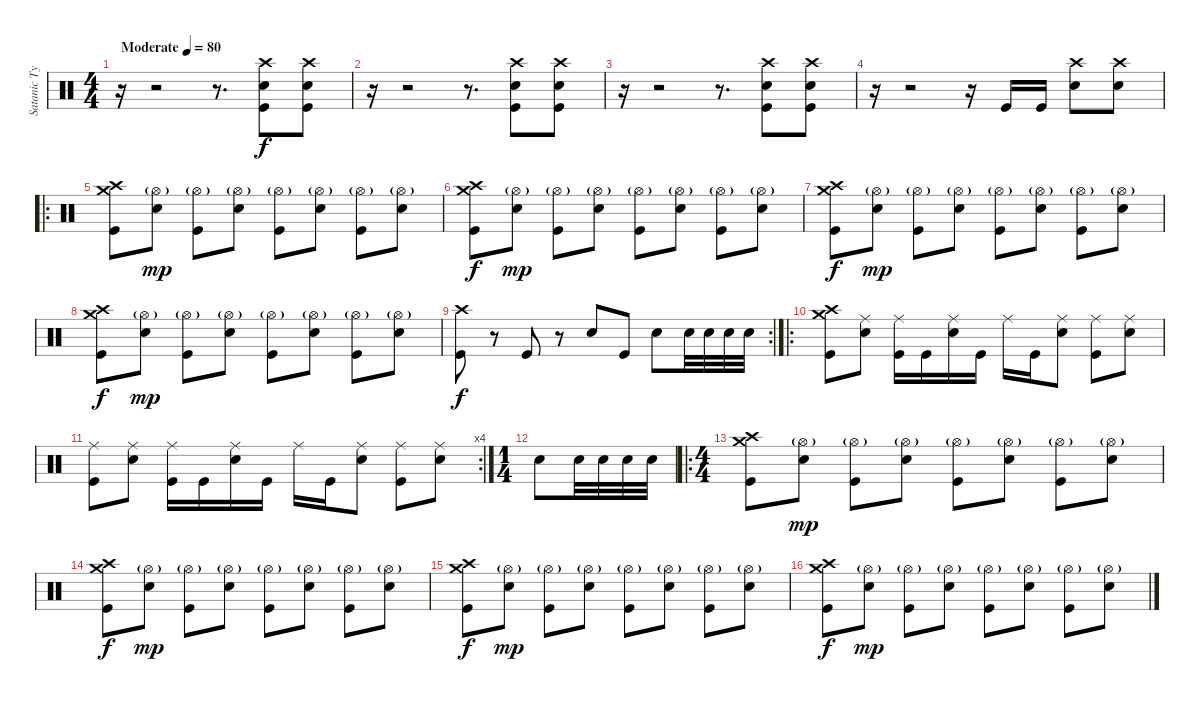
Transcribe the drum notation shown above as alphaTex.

\track ("Satanic Tyrant Werewolf" "Satanic Ty") {instrument percussion}
\staff {score}
\articulation defaults
\ts (4 4)
\tempo (80 "Moderate")
\clef neutral
\ks c
r.16{dy f} r.2 r.8{d} ("Crash high (hit)" "Snare (hit) 2" "Kick (hit)").8 ("Crash high (hit)" "Snare (hit) 2" "Kick (hit)").8 |
r.16 r.2 r.8{d} ("Crash high (hit)" "Snare (hit) 2" "Kick (hit)").8 ("Crash high (hit)" "Snare (hit) 2" "Kick (hit)").8 |
r.16 r.2 r.8{d} ("Crash high (hit)" "Snare (hit) 2" "Kick (hit)").8 ("Crash high (hit)" "Snare (hit) 2" "Kick (hit)").8 |
r.16 r.2 r.16 "Kick (hit)".16 "Kick (hit)".16 ("Crash high (hit)" "Snare (hit) 2").8 ("Crash high (hit)" "Snare (hit) 2").8 |
\ro
("Crash medium (hit)" "Crash high (hit)" "Kick (hit)").8 ("Hi-Hat (open)"{g} "Snare (hit) 2").8{dy mp} ("Hi-Hat (open)"{g} "Kick (hit)").8 ("Hi-Hat (open)"{g} "Snare (hit) 2").8 ("Hi-Hat (open)"{g} "Kick (hit)").8 ("Hi-Hat (open)"{g} "Snare (hit) 2").8 ("Hi-Hat (open)"{g} "Kick (hit)").8 ("Hi-Hat (open)"{g} "Snare (hit) 2").8 |
("Crash medium (hit)" "Crash high (hit)" "Kick (hit)").8{dy f} ("Hi-Hat (open)"{g} "Snare (hit) 2").8{dy mp} ("Hi-Hat (open)"{g} "Kick (hit)").8 ("Hi-Hat (open)"{g} "Snare (hit) 2").8 ("Hi-Hat (open)"{g} "Kick (hit)").8 ("Hi-Hat (open)"{g} "Snare (hit) 2").8 ("Hi-Hat (open)"{g} "Kick (hit)").8 ("Hi-Hat (open)"{g} "Snare (hit) 2").8 |
("Crash medium (hit)" "Crash high (hit)" "Kick (hit)").8{dy f} ("Hi-Hat (open)"{g} "Snare (hit) 2").8{dy mp} ("Hi-Hat (open)"{g} "Kick (hit)").8 ("Hi-Hat (open)"{g} "Snare (hit) 2").8 ("Hi-Hat (open)"{g} "Kick (hit)").8 ("Hi-Hat (open)"{g} "Snare (hit) 2").8 ("Hi-Hat (open)"{g} "Kick (hit)").8 ("Hi-Hat (open)"{g} "Snare (hit) 2").8 |
("Crash medium (hit)" "Crash high (hit)" "Kick (hit)").8{dy f} ("Hi-Hat (open)"{g} "Snare (hit) 2").8{dy mp} ("Hi-Hat (open)"{g} "Kick (hit)").8 ("Hi-Hat (open)"{g} "Snare (hit) 2").8 ("Hi-Hat (open)"{g} "Kick (hit)").8 ("Hi-Hat (open)"{g} "Snare (hit) 2").8 ("Hi-Hat (open)"{g} "Kick (hit)").8 ("Hi-Hat (open)"{g} "Snare (hit) 2").8 |
\rc 2
("Crash high (hit)" "Kick (hit)").8{dy f} r.8 "Kick (hit)".8 r.8 "Snare (hit) 2".8 "Kick (hit)".8 "Snare (hit) 2".8 "Snare (hit) 2".32 "Snare (hit) 2".32 "Snare (hit) 2".32 "Snare (hit) 2".32 |
\ro
("Crash high (hit)" "Crash medium (hit)" "Kick (hit)").8 ("Ride (middle)" "Snare (hit) 2").8 ("Ride (middle)" "Kick (hit)").16 "Kick (hit)".16 ("Ride (middle)" "Snare (hit) 2").16 "Kick (hit)".16 "Ride (middle)".16 "Kick (hit)".16 ("Ride (middle)" "Snare (hit) 2").8 ("Ride (middle)" "Kick (hit)").8 ("Ride (middle)" "Snare (hit) 2").8 |
\rc 4
("Ride (middle)" "Kick (hit)").8 ("Ride (middle)" "Snare (hit) 2").8 ("Ride (middle)" "Kick (hit)").16 "Kick (hit)".16 ("Ride (middle)" "Snare (hit) 2").16 "Kick (hit)".16 "Ride (middle)".16 "Kick (hit)".16 ("Ride (middle)" "Snare (hit) 2").8 ("Ride (middle)" "Kick (hit)").8 ("Ride (middle)" "Snare (hit) 2").8 |
\ts (1 4)
"Snare (hit) 2".8 "Snare (hit) 2".32 "Snare (hit) 2".32 "Snare (hit) 2".32 "Snare (hit) 2".32 |
\ro
\ts (4 4)
("Crash medium (hit)" "Crash high (hit)" "Kick (hit)").8 ("Hi-Hat (open)"{g} "Snare (hit) 2").8{dy mp} ("Hi-Hat (open)"{g} "Kick (hit)").8 ("Hi-Hat (open)"{g} "Snare (hit) 2").8 ("Hi-Hat (open)"{g} "Kick (hit)").8 ("Hi-Hat (open)"{g} "Snare (hit) 2").8 ("Hi-Hat (open)"{g} "Kick (hit)").8 ("Hi-Hat (open)"{g} "Snare (hit) 2").8 |
("Crash medium (hit)" "Crash high (hit)" "Kick (hit)").8{dy f} ("Hi-Hat (open)"{g} "Snare (hit) 2").8{dy mp} ("Hi-Hat (open)"{g} "Kick (hit)").8 ("Hi-Hat (open)"{g} "Snare (hit) 2").8 ("Hi-Hat (open)"{g} "Kick (hit)").8 ("Hi-Hat (open)"{g} "Snare (hit) 2").8 ("Hi-Hat (open)"{g} "Kick (hit)").8 ("Hi-Hat (open)"{g} "Snare (hit) 2").8 |
("Crash medium (hit)" "Crash high (hit)" "Kick (hit)").8{dy f} ("Hi-Hat (open)"{g} "Snare (hit) 2").8{dy mp} ("Hi-Hat (open)"{g} "Kick (hit)").8 ("Hi-Hat (open)"{g} "Snare (hit) 2").8 ("Hi-Hat (open)"{g} "Kick (hit)").8 ("Hi-Hat (open)"{g} "Snare (hit) 2").8 ("Hi-Hat (open)"{g} "Kick (hit)").8 ("Hi-Hat (open)"{g} "Snare (hit) 2").8 |
("Crash medium (hit)" "Crash high (hit)" "Kick (hit)").8{dy f} ("Hi-Hat (open)"{g} "Snare (hit) 2").8{dy mp} ("Hi-Hat (open)"{g} "Kick (hit)").8 ("Hi-Hat (open)"{g} "Snare (hit) 2").8 ("Hi-Hat (open)"{g} "Kick (hit)").8 ("Hi-Hat (open)"{g} "Snare (hit) 2").8 ("Hi-Hat (open)"{g} "Kick (hit)").8 ("Hi-Hat (open)"{g} "Snare (hit) 2").8
